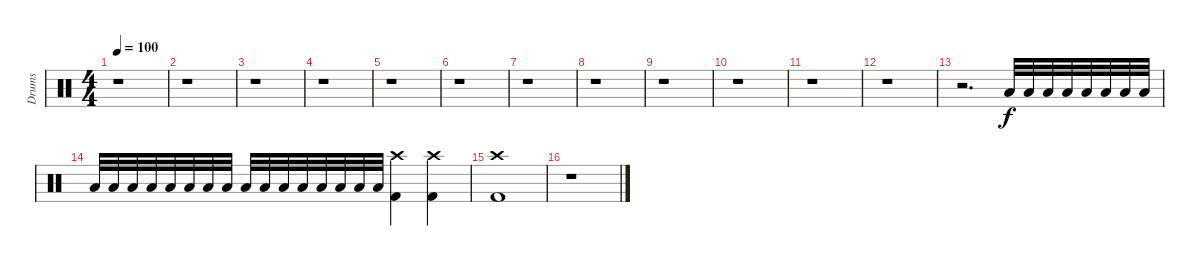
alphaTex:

\track ("Drums" "Drums") {instrument percussion}
\staff {score}
\articulation defaults
\ts (4 4)
\tempo 100
\clef neutral
\ks c
r.1{dy f} |
r.1 |
r.1 |
r.1 |
r.1 |
r.1 |
r.1 |
r.1 |
r.1 |
r.1 |
r.1 |
r.1 |
r.2{d} "Low Floor Tom (hit)".32{volume 0} "Low Floor Tom (hit)".32{volume 13} "Low Floor Tom (hit)".32 "Low Floor Tom (hit)".32 "Low Floor Tom (hit)".32 "Low Floor Tom (hit)".32 "Low Floor Tom (hit)".32 "Low Floor Tom (hit)".32 |
"Low Floor Tom (hit)".32 "Low Floor Tom (hit)".32 "Low Floor Tom (hit)".32 "Low Floor Tom (hit)".32 "Low Floor Tom (hit)".32 "Low Floor Tom (hit)".32 "Low Floor Tom (hit)".32 "Low Floor Tom (hit)".32 "Low Floor Tom (hit)".32 "Low Floor Tom (hit)".32 "Low Floor Tom (hit)".32 "Low Floor Tom (hit)".32 "Low Floor Tom (hit)".32 "Low Floor Tom (hit)".32 "Low Floor Tom (hit)".32 "Low Floor Tom (hit)".32 ("Crash high (hit)" "Kick (hit) 2").4 ("Crash high (hit)" "Kick (hit) 2").4 |
("Crash high (hit)" "Kick (hit) 2").1 |
r.1
